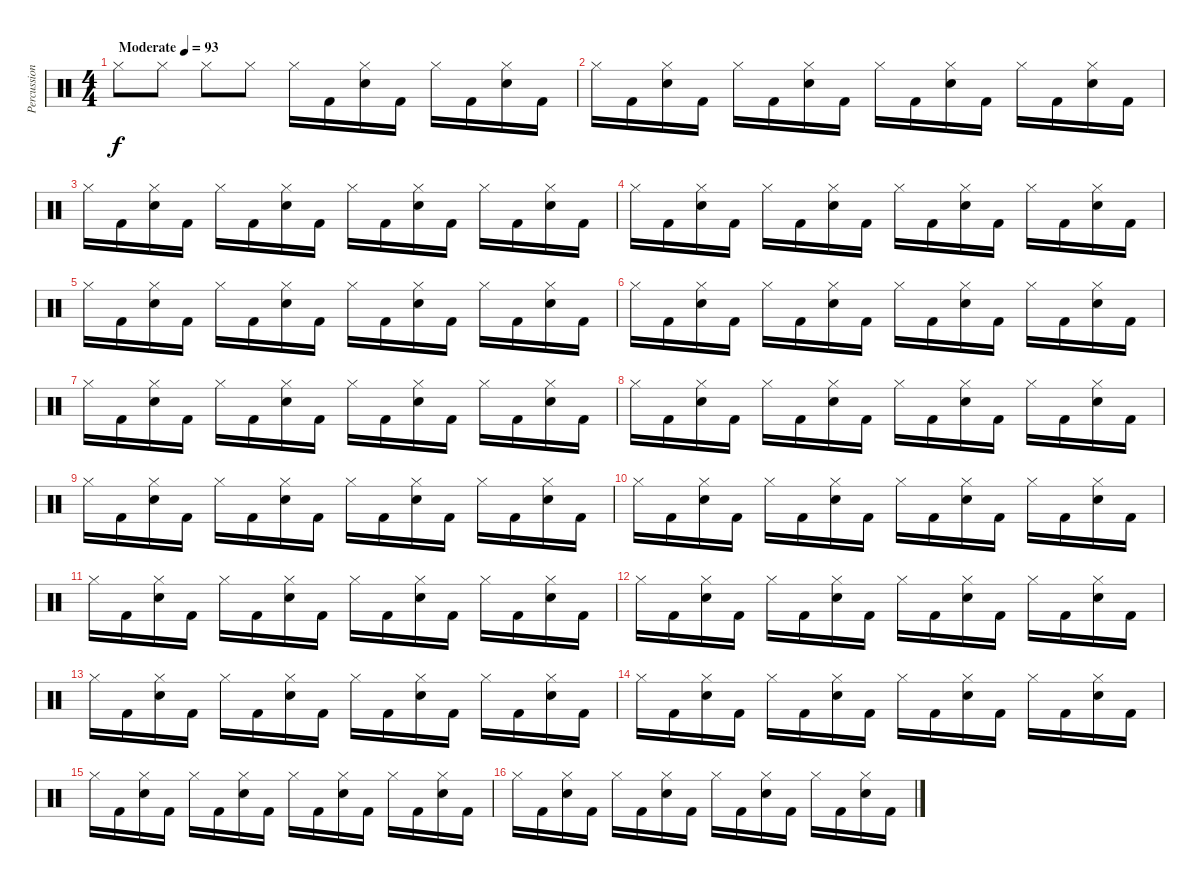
\track ("Percussion" "Percussion") {instrument percussion}
\staff {score}
\articulation defaults
\ts (4 4)
\tempo (93 "Moderate")
\clef neutral
\ks c "Hi-Hat (closed)".8{dy f} "Hi-Hat (closed)".8 "Hi-Hat (closed)".8 "Hi-Hat (closed)".8 "Hi-Hat (closed)".16 "Kick (hit) 2".16
("Hi-Hat (closed)" "Snare (hit) 2").16 "Kick (hit) 2".16 "Hi-Hat (closed)".16 "Kick (hit) 2".16 ("Hi-Hat (closed)" "Snare (hit) 2").16 "Kick (hit) 2".16 |
"Hi-Hat (closed)".16 "Kick (hit) 2".16 ("Hi-Hat (closed)" "Snare (hit) 2").16 "Kick (hit) 2".16 "Hi-Hat (closed)".16 "Kick (hit) 2".16 ("Hi-Hat (closed)" "Snare (hit) 2").16 "Kick (hit) 2".16 "Hi-Hat (closed)".16 "Kick (hit) 2".16 ("Hi-Hat (closed)" "Snare (hit) 2").16 "Kick (hit) 2".16 "Hi-Hat (closed)".16 "Kick (hit) 2".16 ("Hi-Hat (closed)" "Snare (hit) 2").16 "Kick (hit) 2".16 |
"Hi-Hat (closed)".16 "Kick (hit) 2".16 ("Hi-Hat (closed)" "Snare (hit) 2").16 "Kick (hit) 2".16 "Hi-Hat (closed)".16 "Kick (hit) 2".16 ("Hi-Hat (closed)" "Snare (hit) 2").16 "Kick (hit) 2".16 "Hi-Hat (closed)".16 "Kick (hit) 2".16 ("Hi-Hat (closed)" "Snare (hit) 2").16 "Kick (hit) 2".16 "Hi-Hat (closed)".16 "Kick (hit) 2".16 ("Hi-Hat (closed)" "Snare (hit) 2").16 "Kick (hit) 2".16 |
"Hi-Hat (closed)".16 "Kick (hit) 2".16 ("Hi-Hat (closed)" "Snare (hit) 2").16 "Kick (hit) 2".16 "Hi-Hat (closed)".16 "Kick (hit) 2".16 ("Hi-Hat (closed)" "Snare (hit) 2").16 "Kick (hit) 2".16 "Hi-Hat (closed)".16 "Kick (hit) 2".16 ("Hi-Hat (closed)" "Snare (hit) 2").16 "Kick (hit) 2".16 "Hi-Hat (closed)".16 "Kick (hit) 2".16 ("Hi-Hat (closed)" "Snare (hit) 2").16 "Kick (hit) 2".16 |
"Hi-Hat (closed)".16 "Kick (hit) 2".16 ("Hi-Hat (closed)" "Snare (hit) 2").16 "Kick (hit) 2".16 "Hi-Hat (closed)".16 "Kick (hit) 2".16 ("Hi-Hat (closed)" "Snare (hit) 2").16 "Kick (hit) 2".16 "Hi-Hat (closed)".16 "Kick (hit) 2".16 ("Hi-Hat (closed)" "Snare (hit) 2").16 "Kick (hit) 2".16 "Hi-Hat (closed)".16 "Kick (hit) 2".16 ("Hi-Hat (closed)" "Snare (hit) 2").16 "Kick (hit) 2".16 |
"Hi-Hat (closed)".16 "Kick (hit) 2".16 ("Hi-Hat (closed)" "Snare (hit) 2").16 "Kick (hit) 2".16 "Hi-Hat (closed)".16 "Kick (hit) 2".16 ("Hi-Hat (closed)" "Snare (hit) 2").16 "Kick (hit) 2".16 "Hi-Hat (closed)".16 "Kick (hit) 2".16 ("Hi-Hat (closed)" "Snare (hit) 2").16 "Kick (hit) 2".16 "Hi-Hat (closed)".16 "Kick (hit) 2".16 ("Hi-Hat (closed)" "Snare (hit) 2").16 "Kick (hit) 2".16 |
"Hi-Hat (closed)".16 "Kick (hit) 2".16 ("Hi-Hat (closed)" "Snare (hit) 2").16 "Kick (hit) 2".16 "Hi-Hat (closed)".16 "Kick (hit) 2".16 ("Hi-Hat (closed)" "Snare (hit) 2").16 "Kick (hit) 2".16 "Hi-Hat (closed)".16 "Kick (hit) 2".16 ("Hi-Hat (closed)" "Snare (hit) 2").16 "Kick (hit) 2".16 "Hi-Hat (closed)".16 "Kick (hit) 2".16 ("Hi-Hat (closed)" "Snare (hit) 2").16 "Kick (hit) 2".16 |
"Hi-Hat (closed)".16 "Kick (hit) 2".16 ("Hi-Hat (closed)" "Snare (hit) 2").16 "Kick (hit) 2".16 "Hi-Hat (closed)".16 "Kick (hit) 2".16 ("Hi-Hat (closed)" "Snare (hit) 2").16 "Kick (hit) 2".16 "Hi-Hat (closed)".16 "Kick (hit) 2".16 ("Hi-Hat (closed)" "Snare (hit) 2").16 "Kick (hit) 2".16 "Hi-Hat (closed)".16 "Kick (hit) 2".16 ("Hi-Hat (closed)" "Snare (hit) 2").16 "Kick (hit) 2".16 |
"Hi-Hat (closed)".16 "Kick (hit) 2".16 ("Hi-Hat (closed)" "Snare (hit) 2").16 "Kick (hit) 2".16 "Hi-Hat (closed)".16 "Kick (hit) 2".16 ("Hi-Hat (closed)" "Snare (hit) 2").16 "Kick (hit) 2".16 "Hi-Hat (closed)".16 "Kick (hit) 2".16 ("Hi-Hat (closed)" "Snare (hit) 2").16 "Kick (hit) 2".16 "Hi-Hat (closed)".16 "Kick (hit) 2".16 ("Hi-Hat (closed)" "Snare (hit) 2").16 "Kick (hit) 2".16 |
"Hi-Hat (closed)".16 "Kick (hit) 2".16 ("Hi-Hat (closed)" "Snare (hit) 2").16 "Kick (hit) 2".16 "Hi-Hat (closed)".16 "Kick (hit) 2".16 ("Hi-Hat (closed)" "Snare (hit) 2").16 "Kick (hit) 2".16 "Hi-Hat (closed)".16 "Kick (hit) 2".16 ("Hi-Hat (closed)" "Snare (hit) 2").16 "Kick (hit) 2".16 "Hi-Hat (closed)".16 "Kick (hit) 2".16 ("Hi-Hat (closed)" "Snare (hit) 2").16 "Kick (hit) 2".16 |
"Hi-Hat (closed)".16 "Kick (hit) 2".16 ("Hi-Hat (closed)" "Snare (hit) 2").16 "Kick (hit) 2".16 "Hi-Hat (closed)".16 "Kick (hit) 2".16 ("Hi-Hat (closed)" "Snare (hit) 2").16 "Kick (hit) 2".16 "Hi-Hat (closed)".16 "Kick (hit) 2".16 ("Hi-Hat (closed)" "Snare (hit) 2").16 "Kick (hit) 2".16 "Hi-Hat (closed)".16 "Kick (hit) 2".16 ("Hi-Hat (closed)" "Snare (hit) 2").16 "Kick (hit) 2".16 |
"Hi-Hat (closed)".16 "Kick (hit) 2".16 ("Hi-Hat (closed)" "Snare (hit) 2").16 "Kick (hit) 2".16 "Hi-Hat (closed)".16 "Kick (hit) 2".16 ("Hi-Hat (closed)" "Snare (hit) 2").16 "Kick (hit) 2".16 "Hi-Hat (closed)".16 "Kick (hit) 2".16 ("Hi-Hat (closed)" "Snare (hit) 2").16 "Kick (hit) 2".16 "Hi-Hat (closed)".16 "Kick (hit) 2".16 ("Hi-Hat (closed)" "Snare (hit) 2").16 "Kick (hit) 2".16 |
"Hi-Hat (closed)".16 "Kick (hit) 2".16 ("Hi-Hat (closed)" "Snare (hit) 2").16 "Kick (hit) 2".16 "Hi-Hat (closed)".16 "Kick (hit) 2".16 ("Hi-Hat (closed)" "Snare (hit) 2").16 "Kick (hit) 2".16 "Hi-Hat (closed)".16 "Kick (hit) 2".16 ("Hi-Hat (closed)" "Snare (hit) 2").16 "Kick (hit) 2".16 "Hi-Hat (closed)".16 "Kick (hit) 2".16 ("Hi-Hat (closed)" "Snare (hit) 2").16 "Kick (hit) 2".16 |
"Hi-Hat (closed)".16 "Kick (hit) 2".16 ("Hi-Hat (closed)" "Snare (hit) 2").16 "Kick (hit) 2".16 "Hi-Hat (closed)".16 "Kick (hit) 2".16 ("Hi-Hat (closed)" "Snare (hit) 2").16 "Kick (hit) 2".16 "Hi-Hat (closed)".16 "Kick (hit) 2".16 ("Hi-Hat (closed)" "Snare (hit) 2").16 "Kick (hit) 2".16 "Hi-Hat (closed)".16 "Kick (hit) 2".16 ("Hi-Hat (closed)" "Snare (hit) 2").16 "Kick (hit) 2".16 |
"Hi-Hat (closed)".16 "Kick (hit) 2".16 ("Hi-Hat (closed)" "Snare (hit) 2").16 "Kick (hit) 2".16 "Hi-Hat (closed)".16 "Kick (hit) 2".16 ("Hi-Hat (closed)" "Snare (hit) 2").16 "Kick (hit) 2".16 "Hi-Hat (closed)".16 "Kick (hit) 2".16 ("Hi-Hat (closed)" "Snare (hit) 2").16 "Kick (hit) 2".16 "Hi-Hat (closed)".16 "Kick (hit) 2".16 ("Hi-Hat (closed)" "Snare (hit) 2").16 "Kick (hit) 2".16 |
"Hi-Hat (closed)".16 "Kick (hit) 2".16 ("Hi-Hat (closed)" "Snare (hit) 2").16 "Kick (hit) 2".16 "Hi-Hat (closed)".16 "Kick (hit) 2".16 ("Hi-Hat (closed)" "Snare (hit) 2").16 "Kick (hit) 2".16 "Hi-Hat (closed)".16 "Kick (hit) 2".16 ("Hi-Hat (closed)" "Snare (hit) 2").16 "Kick (hit) 2".16 "Hi-Hat (closed)".16 "Kick (hit) 2".16 ("Hi-Hat (closed)" "Snare (hit) 2").16 "Kick (hit) 2".16
